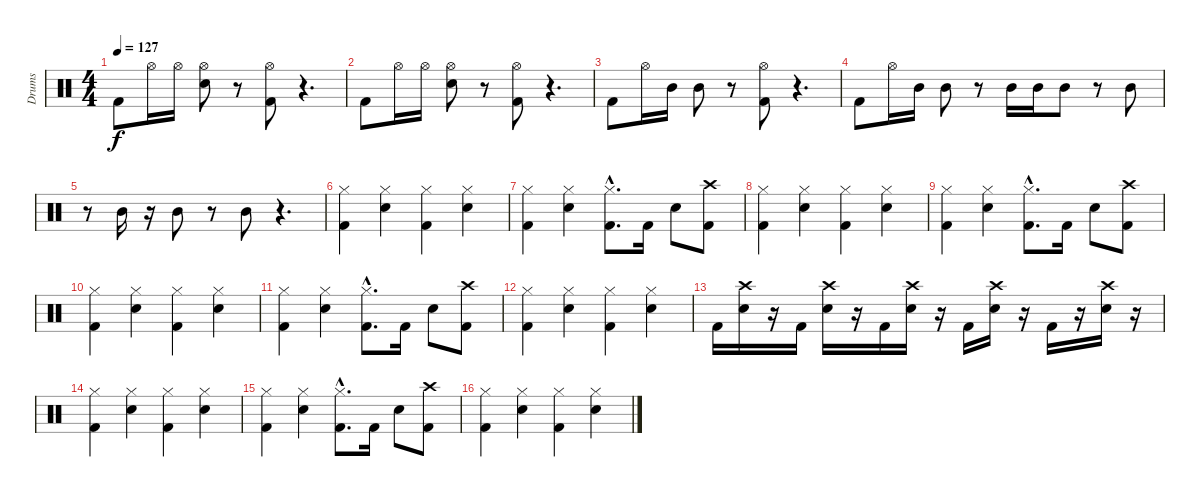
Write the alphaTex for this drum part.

\track ("Drums" "Drums") {instrument percussion}
\staff {score}
\articulation defaults
\ts (4 4)
\tempo 127
\clef neutral
\ks c "Kick (hit) 2".8{dy f} "Hi-Hat (open)".16 "Hi-Hat (open)".16
("Hi-Hat (open)" "Snare (hit) 2").8 r.8 ("Hi-Hat (open)" "Kick (hit) 2").8 r.4{d} |
"Kick (hit) 2".8 "Hi-Hat (open)".16 "Hi-Hat (open)".16 ("Hi-Hat (open)" "Snare (hit) 2").8 r.8 ("Hi-Hat (open)" "Kick (hit) 2").8 r.4{d} |
"Kick (hit) 2".8 "Hi-Hat (open)".16 "Mid Tom (hit)".16 "Mid Tom (hit)".8 r.8 ("Hi-Hat (open)" "Kick (hit) 2").8 r.4{d} |
"Kick (hit) 2".8 "Hi-Hat (open)".16 "Mid Tom (hit)".16 "Mid Tom (hit)".8 r.8 "Mid Tom (hit)".16 "Mid Tom (hit)".16 "Mid Tom (hit)".8 r.8 "Mid Tom (hit)".8 |
r.8 "Mid Tom (hit)".16 r.16 "Mid Tom (hit)".8 r.8 "Mid Tom (hit)".8 r.4{d} |
("Hi-Hat (closed)" "Kick (hit) 2").4 ("Hi-Hat (closed)" "Snare (hit) 2").4 ("Hi-Hat (closed)" "Kick (hit) 2").4 ("Hi-Hat (closed)" "Snare (hit) 2").4 |
("Hi-Hat (closed)" "Kick (hit) 2").4 ("Hi-Hat (closed)" "Snare (hit) 2").4 ("Hi-Hat (closed)" "Kick (hit) 2"{hac}).8{d} "Kick (hit) 2".16 "Snare (hit) 2".8 ("Crash high (hit)" "Kick (hit) 2").8 |
("Hi-Hat (closed)" "Kick (hit) 2").4 ("Hi-Hat (closed)" "Snare (hit) 2").4 ("Hi-Hat (closed)" "Kick (hit) 2").4 ("Hi-Hat (closed)" "Snare (hit) 2").4 |
("Hi-Hat (closed)" "Kick (hit) 2").4 ("Hi-Hat (closed)" "Snare (hit) 2").4 ("Hi-Hat (closed)" "Kick (hit) 2"{hac}).8{d} "Kick (hit) 2".16 "Snare (hit) 2".8 ("Crash high (hit)" "Kick (hit) 2").8 |
("Hi-Hat (closed)" "Kick (hit) 2").4 ("Hi-Hat (closed)" "Snare (hit) 2").4 ("Hi-Hat (closed)" "Kick (hit) 2").4 ("Hi-Hat (closed)" "Snare (hit) 2").4 |
("Hi-Hat (closed)" "Kick (hit) 2").4 ("Hi-Hat (closed)" "Snare (hit) 2").4 ("Hi-Hat (closed)" "Kick (hit) 2"{hac}).8{d} "Kick (hit) 2".16 "Snare (hit) 2".8 ("Crash high (hit)" "Kick (hit) 2").8 |
("Hi-Hat (closed)" "Kick (hit) 2").4 ("Hi-Hat (closed)" "Snare (hit) 2").4 ("Hi-Hat (closed)" "Kick (hit) 2").4 ("Hi-Hat (closed)" "Snare (hit) 2").4 |
"Kick (hit) 2".16 ("Crash high (hit)" "Snare (hit) 2").16 r.16 "Kick (hit) 2".16 ("Crash high (hit)" "Snare (hit) 2").16 r.16 "Kick (hit) 2".16 ("Crash high (hit)" "Snare (hit) 2").16 r.16 "Kick (hit) 2".16 ("Crash high (hit)" "Snare (hit) 2").16 r.16 "Kick (hit) 2".16 r.16 ("Crash high (hit)" "Snare (hit) 2").16 r.16 |
("Hi-Hat (closed)" "Kick (hit) 2").4 ("Hi-Hat (closed)" "Snare (hit) 2").4 ("Hi-Hat (closed)" "Kick (hit) 2").4 ("Hi-Hat (closed)" "Snare (hit) 2").4 |
("Hi-Hat (closed)" "Kick (hit) 2").4 ("Hi-Hat (closed)" "Snare (hit) 2").4 ("Hi-Hat (closed)" "Kick (hit) 2"{hac}).8{d} "Kick (hit) 2".16 "Snare (hit) 2".8 ("Crash high (hit)" "Kick (hit) 2").8 |
("Hi-Hat (closed)" "Kick (hit) 2").4 ("Hi-Hat (closed)" "Snare (hit) 2").4 ("Hi-Hat (closed)" "Kick (hit) 2").4 ("Hi-Hat (closed)" "Snare (hit) 2").4
